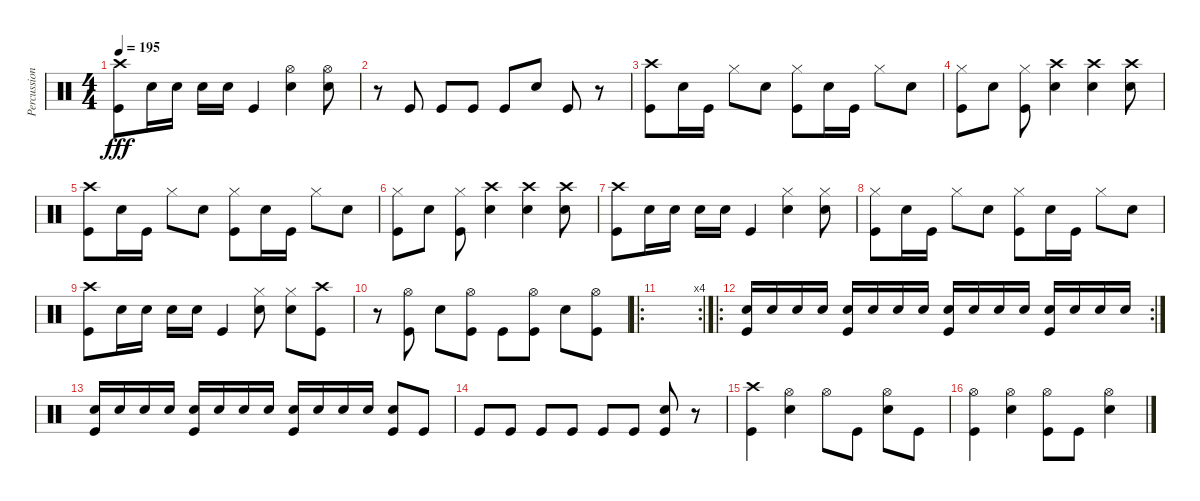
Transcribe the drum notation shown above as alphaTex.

\track ("Percussions" "Percussion") {instrument percussion}
\staff {score}
\articulation defaults
\ts (4 4)
\tempo 195
\clef neutral
\ks c
("Crash high (hit)" "Kick (hit)").8{dy fff} "Electric Snare (hit)".16 "Electric Snare (hit)".16 "Electric Snare (hit)".16 "Electric Snare (hit)".16 "Kick (hit)".4 ("Hi-Hat (open)" "Electric Snare (hit)").4 ("Hi-Hat (open)" "Electric Snare (hit)").8 |
r.8 "Kick (hit)".8 "Kick (hit)".8 "Kick (hit)".8 "Kick (hit)".8 "Electric Snare (hit)".8 "Kick (hit)".8 r.8 |
("Crash high (hit)" "Kick (hit)").8 "Electric Snare (hit)".16 "Kick (hit)".16 "Hi-Hat (closed)".8 "Electric Snare (hit)".8 ("Hi-Hat (closed)" "Kick (hit)").8 "Electric Snare (hit)".16 "Kick (hit)".16 "Hi-Hat (closed)".8 "Electric Snare (hit)".8 |
("Hi-Hat (closed)" "Kick (hit)").8 "Electric Snare (hit)".8 ("Hi-Hat (closed)" "Kick (hit)").8 ("Crash high (hit)" "Electric Snare (hit)").4 ("Crash high (hit)" "Electric Snare (hit)").4 ("Crash high (hit)" "Electric Snare (hit)").8 |
("Crash high (hit)" "Kick (hit)").8 "Electric Snare (hit)".16 "Kick (hit)".16 "Hi-Hat (closed)".8 "Electric Snare (hit)".8 ("Hi-Hat (closed)" "Kick (hit)").8 "Electric Snare (hit)".16 "Kick (hit)".16 "Hi-Hat (closed)".8 "Electric Snare (hit)".8 |
("Hi-Hat (closed)" "Kick (hit)").8 "Electric Snare (hit)".8 ("Hi-Hat (closed)" "Kick (hit)").8 ("Crash high (hit)" "Electric Snare (hit)").4 ("Crash high (hit)" "Electric Snare (hit)").4 ("Crash high (hit)" "Electric Snare (hit)").8 |
("Crash high (hit)" "Kick (hit)").8 "Electric Snare (hit)".16 "Electric Snare (hit)".16 "Electric Snare (hit)".16 "Electric Snare (hit)".16 "Kick (hit)".4 ("Hi-Hat (closed)" "Electric Snare (hit)").4 ("Hi-Hat (closed)" "Electric Snare (hit)").8 |
("Hi-Hat (closed)" "Kick (hit)").8 "Electric Snare (hit)".16 "Kick (hit)".16 "Hi-Hat (closed)".8 "Electric Snare (hit)".8 ("Hi-Hat (closed)" "Kick (hit)").8 "Electric Snare (hit)".16 "Kick (hit)".16 "Hi-Hat (closed)".8 "Electric Snare (hit)".8 |
("Crash high (hit)" "Kick (hit)").8 "Electric Snare (hit)".16 "Electric Snare (hit)".16 "Electric Snare (hit)".16 "Electric Snare (hit)".16 "Kick (hit)".4 ("Hi-Hat (closed)" "Electric Snare (hit)").8 ("Hi-Hat (closed)" "Electric Snare (hit)").8 ("Crash high (hit)" "Kick (hit)").8 |
r.8 ("Hi-Hat (open)" "Kick (hit)").8 "Electric Snare (hit)".8 ("Hi-Hat (open)" "Kick (hit)").8 "Kick (hit)".8 ("Hi-Hat (open)" "Kick (hit)").8 "Electric Snare (hit)".8 ("Hi-Hat (open)" "Kick (hit)").8 |
\ro
\rc 4
|
\ro
\rc 2
("Electric Snare (hit)" "Kick (hit)").16 "Electric Snare (hit)".16 "Electric Snare (hit)".16 "Electric Snare (hit)".16 ("Electric Snare (hit)" "Kick (hit)").16 "Electric Snare (hit)".16 "Electric Snare (hit)".16 "Electric Snare (hit)".16 ("Electric Snare (hit)" "Kick (hit)").16 "Electric Snare (hit)".16 "Electric Snare (hit)".16 "Electric Snare (hit)".16 ("Electric Snare (hit)" "Kick (hit)").16 "Electric Snare (hit)".16 "Electric Snare (hit)".16 "Electric Snare (hit)".16 |
("Electric Snare (hit)" "Kick (hit)").16 "Electric Snare (hit)".16 "Electric Snare (hit)".16 "Electric Snare (hit)".16 ("Electric Snare (hit)" "Kick (hit)").16 "Electric Snare (hit)".16 "Electric Snare (hit)".16 "Electric Snare (hit)".16 ("Electric Snare (hit)" "Kick (hit)").16 "Electric Snare (hit)".16 "Electric Snare (hit)".16 "Electric Snare (hit)".16 ("Electric Snare (hit)" "Kick (hit)").8 "Kick (hit)".8 |
"Kick (hit)".8 "Kick (hit)".8 "Kick (hit)".8 "Kick (hit)".8 "Kick (hit)".8 "Kick (hit)".8 ("Electric Snare (hit)" "Kick (hit)").8 r.8 |
("Crash high (hit)" "Kick (hit)").4 ("Hi-Hat (open)" "Electric Snare (hit)").4 "Hi-Hat (open)".8 "Kick (hit)".8 ("Hi-Hat (open)" "Electric Snare (hit)").8 "Kick (hit)".8 |
("Hi-Hat (open)" "Kick (hit)").4 ("Hi-Hat (open)" "Electric Snare (hit)").4 ("Hi-Hat (open)" "Kick (hit)").8 "Kick (hit)".8 ("Hi-Hat (open)" "Electric Snare (hit)").4
